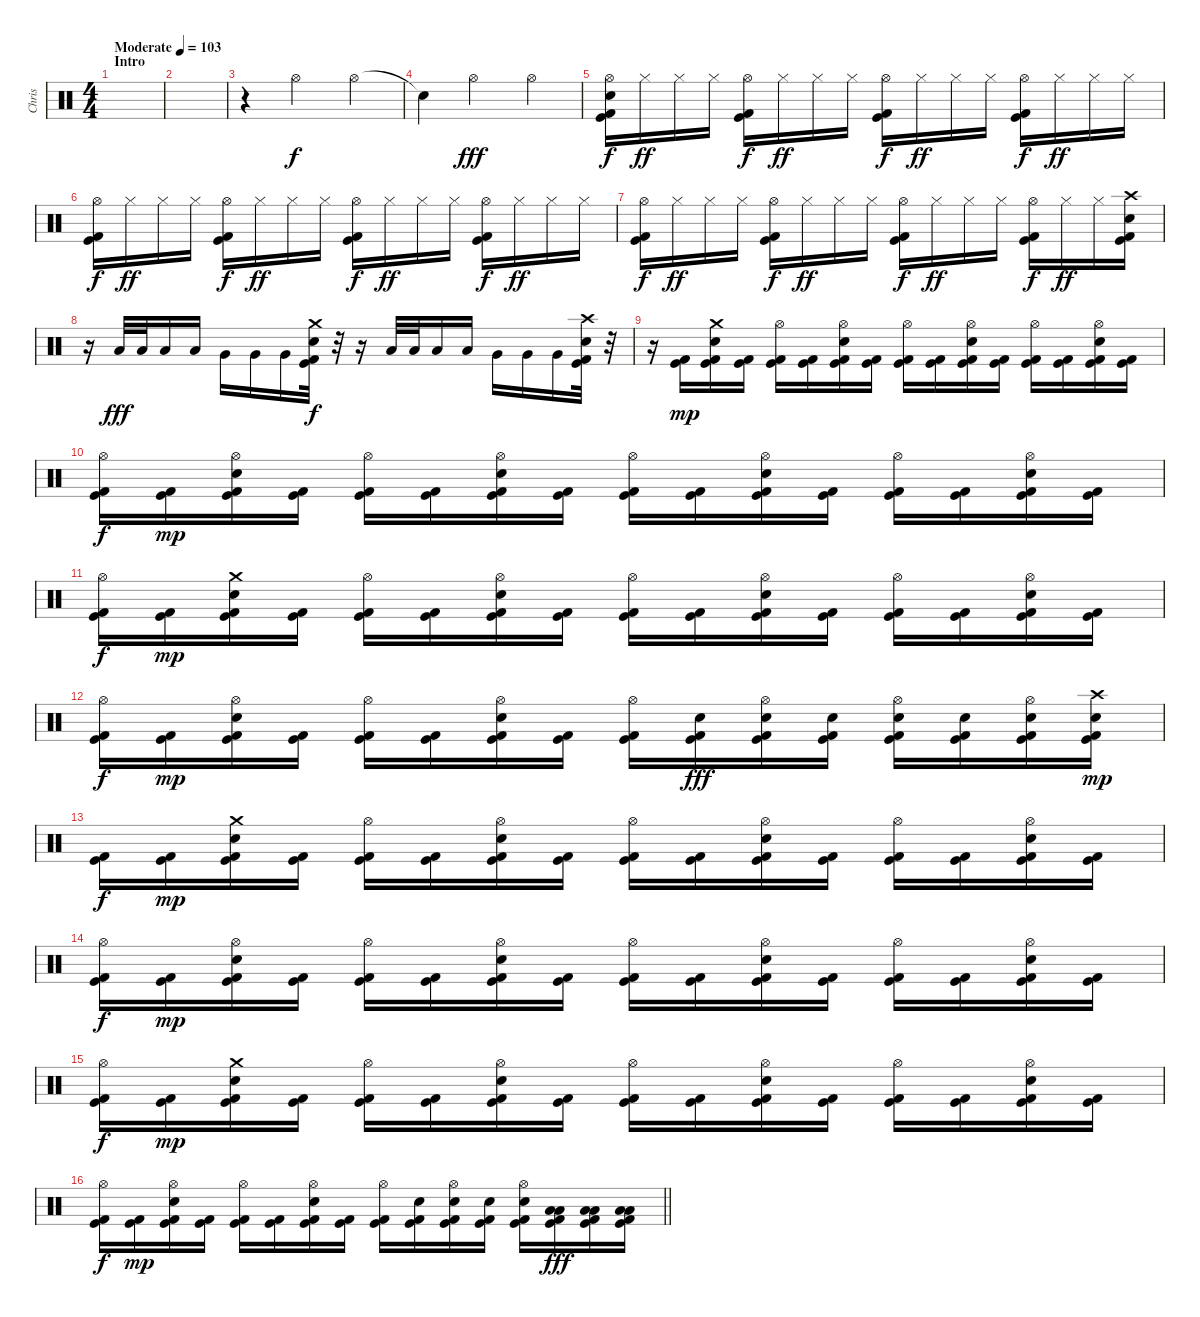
\track ("Chris" "Chris") {instrument percussion}
\staff {score}
\articulation defaults
\ts (4 4)
\section ("" "Intro")
\tempo (103 "Moderate")
\clef neutral
\ks c
|
|
r.4 "Hi-Hat (open)".2 "Hi-Hat (open)".4 |
"Snare (hit)"{t}.4{dy f} "Hi-Hat (open)".2{dy fff} "Hi-Hat (open)".4 |
("Kick (hit)" "Kick (hit) 2" "Hi-Hat (open)" "Snare (hit)").16{dy f} "Hi-Hat (closed)".16{dy ff} "Hi-Hat (closed)".16 "Hi-Hat (closed)".16 ("Kick (hit)" "Kick (hit) 2" "Hi-Hat (open)").16{dy f} "Hi-Hat (closed)".16{dy ff} "Hi-Hat (closed)".16 "Hi-Hat (closed)".16 ("Kick (hit)" "Kick (hit) 2" "Hi-Hat (open)").16{dy f} "Hi-Hat (closed)".16{dy ff} "Hi-Hat (closed)".16 "Hi-Hat (closed)".16 ("Kick (hit)" "Kick (hit) 2" "Hi-Hat (open)").16{dy f} "Hi-Hat (closed)".16{dy ff} "Hi-Hat (closed)".16 "Hi-Hat (closed)".16 |
("Kick (hit)" "Kick (hit) 2" "Hi-Hat (open)").16{dy f} "Hi-Hat (closed)".16{dy ff} "Hi-Hat (closed)".16 "Hi-Hat (closed)".16 ("Kick (hit)" "Kick (hit) 2" "Hi-Hat (open)").16{dy f} "Hi-Hat (closed)".16{dy ff} "Hi-Hat (closed)".16 "Hi-Hat (closed)".16 ("Kick (hit)" "Kick (hit) 2" "Hi-Hat (open)").16{dy f} "Hi-Hat (closed)".16{dy ff} "Hi-Hat (closed)".16 "Hi-Hat (closed)".16 ("Kick (hit)" "Kick (hit) 2" "Hi-Hat (open)").16{dy f} "Hi-Hat (closed)".16{dy ff} "Hi-Hat (closed)".16 "Hi-Hat (closed)".16 |
("Kick (hit)" "Kick (hit) 2" "Hi-Hat (open)").16{dy f} "Hi-Hat (closed)".16{dy ff} "Hi-Hat (closed)".16 "Hi-Hat (closed)".16 ("Kick (hit)" "Kick (hit) 2" "Hi-Hat (open)").16{dy f} "Hi-Hat (closed)".16{dy ff} "Hi-Hat (closed)".16 "Hi-Hat (closed)".16 ("Kick (hit)" "Kick (hit) 2" "Hi-Hat (open)").16{dy f} "Hi-Hat (closed)".16{dy ff} "Hi-Hat (closed)".16 "Hi-Hat (closed)".16 ("Kick (hit)" "Kick (hit) 2" "Hi-Hat (open)").16{dy f} "Hi-Hat (closed)".16{dy ff} "Hi-Hat (closed)".16 ("Kick (hit)" "Kick (hit) 2" "Electric Snare (hit)" "Crash high (hit)").16 |
r.16 "Low Tom (hit)".32{dy fff} "Low Tom (hit)".32 "Low Tom (hit)".16 "Low Tom (hit)".16 "Very Low Tom (hit)".16 "Very Low Tom (hit)".16 "Very Low Tom (hit)".16 ("Kick (hit)" "Kick (hit) 2" "Electric Snare (hit)" "Crash medium (hit)").32{dy f} r.32 r.16 "Low Tom (hit)".32 "Low Tom (hit)".32 "Low Tom (hit)".16 "Low Tom (hit)".16 "Very Low Tom (hit)".16 "Very Low Tom (hit)".16 "Very Low Tom (hit)".16 ("Kick (hit)" "Kick (hit) 2" "Electric Snare (hit)" "Crash high (hit)").32 r.32 |
r.16 ("Kick (hit)" "Kick (hit) 2").16{dy mp} ("Kick (hit)" "Kick (hit) 2" "Electric Snare (hit)" "Crash medium (hit)").16 ("Kick (hit)" "Kick (hit) 2").16 ("Kick (hit)" "Kick (hit) 2" "Hi-Hat (open)").16 ("Kick (hit)" "Kick (hit) 2").16 ("Kick (hit)" "Kick (hit) 2" "Electric Snare (hit)" "Hi-Hat (open)").16 ("Kick (hit)" "Kick (hit) 2").16 ("Kick (hit)" "Kick (hit) 2" "Hi-Hat (open)").16 ("Kick (hit)" "Kick (hit) 2").16 ("Kick (hit)" "Kick (hit) 2" "Electric Snare (hit)" "Hi-Hat (open)").16 ("Kick (hit)" "Kick (hit) 2").16 ("Kick (hit)" "Kick (hit) 2" "Hi-Hat (open)").16 ("Kick (hit)" "Kick (hit) 2").16 ("Kick (hit)" "Kick (hit) 2" "Electric Snare (hit)" "Hi-Hat (open)").16 ("Kick (hit)" "Kick (hit) 2").16 |
("Kick (hit)" "Kick (hit) 2" "Hi-Hat (open)").16{dy f} ("Kick (hit)" "Kick (hit) 2").16{dy mp} ("Kick (hit)" "Kick (hit) 2" "Electric Snare (hit)" "Hi-Hat (open)").16 ("Kick (hit)" "Kick (hit) 2").16 ("Kick (hit)" "Kick (hit) 2" "Hi-Hat (open)").16 ("Kick (hit)" "Kick (hit) 2").16 ("Kick (hit)" "Kick (hit) 2" "Electric Snare (hit)" "Hi-Hat (open)").16 ("Kick (hit)" "Kick (hit) 2").16 ("Kick (hit)" "Kick (hit) 2" "Hi-Hat (open)").16 ("Kick (hit)" "Kick (hit) 2").16 ("Kick (hit)" "Kick (hit) 2" "Electric Snare (hit)" "Hi-Hat (open)").16 ("Kick (hit)" "Kick (hit) 2").16 ("Kick (hit)" "Kick (hit) 2" "Hi-Hat (open)").16 ("Kick (hit)" "Kick (hit) 2").16 ("Kick (hit)" "Kick (hit) 2" "Electric Snare (hit)" "Hi-Hat (open)").16 ("Kick (hit)" "Kick (hit) 2").16 |
("Kick (hit)" "Kick (hit) 2" "Hi-Hat (open)").16{dy f} ("Kick (hit)" "Kick (hit) 2").16{dy mp} ("Kick (hit)" "Kick (hit) 2" "Electric Snare (hit)" "Crash medium (hit)").16 ("Kick (hit)" "Kick (hit) 2").16 ("Kick (hit)" "Kick (hit) 2" "Hi-Hat (open)").16 ("Kick (hit)" "Kick (hit) 2").16 ("Kick (hit)" "Kick (hit) 2" "Electric Snare (hit)" "Hi-Hat (open)").16 ("Kick (hit)" "Kick (hit) 2").16 ("Kick (hit)" "Kick (hit) 2" "Hi-Hat (open)").16 ("Kick (hit)" "Kick (hit) 2").16 ("Kick (hit)" "Kick (hit) 2" "Electric Snare (hit)" "Hi-Hat (open)").16 ("Kick (hit)" "Kick (hit) 2").16 ("Kick (hit)" "Kick (hit) 2" "Hi-Hat (open)").16 ("Kick (hit)" "Kick (hit) 2").16 ("Kick (hit)" "Kick (hit) 2" "Electric Snare (hit)" "Hi-Hat (open)").16 ("Kick (hit)" "Kick (hit) 2").16 |
("Kick (hit)" "Kick (hit) 2" "Hi-Hat (open)").16{dy f} ("Kick (hit)" "Kick (hit) 2").16{dy mp} ("Kick (hit)" "Kick (hit) 2" "Electric Snare (hit)" "Hi-Hat (open)").16 ("Kick (hit)" "Kick (hit) 2").16 ("Kick (hit)" "Kick (hit) 2" "Hi-Hat (open)").16 ("Kick (hit)" "Kick (hit) 2").16 ("Kick (hit)" "Kick (hit) 2" "Electric Snare (hit)" "Hi-Hat (open)").16 ("Kick (hit)" "Kick (hit) 2").16 ("Kick (hit)" "Kick (hit) 2" "Hi-Hat (open)").16 ("Kick (hit)" "Kick (hit) 2" "Electric Snare (hit)").16{dy fff} ("Kick (hit)" "Kick (hit) 2" "Electric Snare (hit)" "Hi-Hat (open)").16 ("Kick (hit)" "Kick (hit) 2" "Electric Snare (hit)").16 ("Kick (hit)" "Kick (hit) 2" "Electric Snare (hit)" "Hi-Hat (open)").16 ("Kick (hit)" "Kick (hit) 2" "Electric Snare (hit)").16 ("Kick (hit)" "Kick (hit) 2" "Electric Snare (hit)" "Hi-Hat (open)").16 ("Kick (hit)" "Kick (hit) 2" "Electric Snare (hit)" "Crash high (hit)").16{dy mp} |
("Kick (hit)" "Kick (hit) 2").16{dy f} ("Kick (hit)" "Kick (hit) 2").16{dy mp} ("Kick (hit)" "Kick (hit) 2" "Electric Snare (hit)" "Crash medium (hit)").16 ("Kick (hit)" "Kick (hit) 2").16 ("Kick (hit)" "Kick (hit) 2" "Hi-Hat (open)").16 ("Kick (hit)" "Kick (hit) 2").16 ("Kick (hit)" "Kick (hit) 2" "Electric Snare (hit)" "Hi-Hat (open)").16 ("Kick (hit)" "Kick (hit) 2").16 ("Kick (hit)" "Kick (hit) 2" "Hi-Hat (open)").16 ("Kick (hit)" "Kick (hit) 2").16 ("Kick (hit)" "Kick (hit) 2" "Electric Snare (hit)" "Hi-Hat (open)").16 ("Kick (hit)" "Kick (hit) 2").16 ("Kick (hit)" "Kick (hit) 2" "Hi-Hat (open)").16 ("Kick (hit)" "Kick (hit) 2").16 ("Kick (hit)" "Kick (hit) 2" "Electric Snare (hit)" "Hi-Hat (open)").16 ("Kick (hit)" "Kick (hit) 2").16 |
("Kick (hit)" "Kick (hit) 2" "Hi-Hat (open)").16{dy f} ("Kick (hit)" "Kick (hit) 2").16{dy mp} ("Kick (hit)" "Kick (hit) 2" "Electric Snare (hit)" "Hi-Hat (open)").16 ("Kick (hit)" "Kick (hit) 2").16 ("Kick (hit)" "Kick (hit) 2" "Hi-Hat (open)").16 ("Kick (hit)" "Kick (hit) 2").16 ("Kick (hit)" "Kick (hit) 2" "Electric Snare (hit)" "Hi-Hat (open)").16 ("Kick (hit)" "Kick (hit) 2").16 ("Kick (hit)" "Kick (hit) 2" "Hi-Hat (open)").16 ("Kick (hit)" "Kick (hit) 2").16 ("Kick (hit)" "Kick (hit) 2" "Electric Snare (hit)" "Hi-Hat (open)").16 ("Kick (hit)" "Kick (hit) 2").16 ("Kick (hit)" "Kick (hit) 2" "Hi-Hat (open)").16 ("Kick (hit)" "Kick (hit) 2").16 ("Kick (hit)" "Kick (hit) 2" "Electric Snare (hit)" "Hi-Hat (open)").16 ("Kick (hit)" "Kick (hit) 2").16 |
("Kick (hit)" "Kick (hit) 2" "Hi-Hat (open)").16{dy f} ("Kick (hit)" "Kick (hit) 2").16{dy mp} ("Kick (hit)" "Kick (hit) 2" "Electric Snare (hit)" "Crash medium (hit)").16 ("Kick (hit)" "Kick (hit) 2").16 ("Kick (hit)" "Kick (hit) 2" "Hi-Hat (open)").16 ("Kick (hit)" "Kick (hit) 2").16 ("Kick (hit)" "Kick (hit) 2" "Electric Snare (hit)" "Hi-Hat (open)").16 ("Kick (hit)" "Kick (hit) 2").16 ("Kick (hit)" "Kick (hit) 2" "Hi-Hat (open)").16 ("Kick (hit)" "Kick (hit) 2").16 ("Kick (hit)" "Kick (hit) 2" "Electric Snare (hit)" "Hi-Hat (open)").16 ("Kick (hit)" "Kick (hit) 2").16 ("Kick (hit)" "Kick (hit) 2" "Hi-Hat (open)").16 ("Kick (hit)" "Kick (hit) 2").16 ("Kick (hit)" "Kick (hit) 2" "Electric Snare (hit)" "Hi-Hat (open)").16 ("Kick (hit)" "Kick (hit) 2").16 |
\barLineRight lightlight
("Kick (hit)" "Kick (hit) 2" "Hi-Hat (open)").16{dy f} ("Kick (hit)" "Kick (hit) 2").16{dy mp} ("Kick (hit)" "Kick (hit) 2" "Electric Snare (hit)" "Hi-Hat (open)").16 ("Kick (hit)" "Kick (hit) 2").16 ("Kick (hit)" "Kick (hit) 2" "Hi-Hat (open)").16 ("Kick (hit)" "Kick (hit) 2").16 ("Kick (hit)" "Kick (hit) 2" "Electric Snare (hit)" "Hi-Hat (open)").16 ("Kick (hit)" "Kick (hit) 2").16 ("Kick (hit)" "Kick (hit) 2" "Hi-Hat (open)").16 ("Kick (hit)" "Kick (hit) 2" "Electric Snare (hit)").16 ("Kick (hit)" "Kick (hit) 2" "Electric Snare (hit)" "Hi-Hat (open)").16 ("Kick (hit)" "Kick (hit) 2" "Electric Snare (hit)").16 ("Kick (hit)" "Kick (hit) 2" "Electric Snare (hit)" "Hi-Hat (open)").16 ("Kick (hit)" "Kick (hit) 2" "Low Tom (hit)" "Low Tom (hit)").16{dy fff} ("Kick (hit)" "Kick (hit) 2" "Low Tom (hit)" "Low Tom (hit)").16 ("Kick (hit)" "Kick (hit) 2" "Low Tom (hit)" "Low Tom (hit)").16
